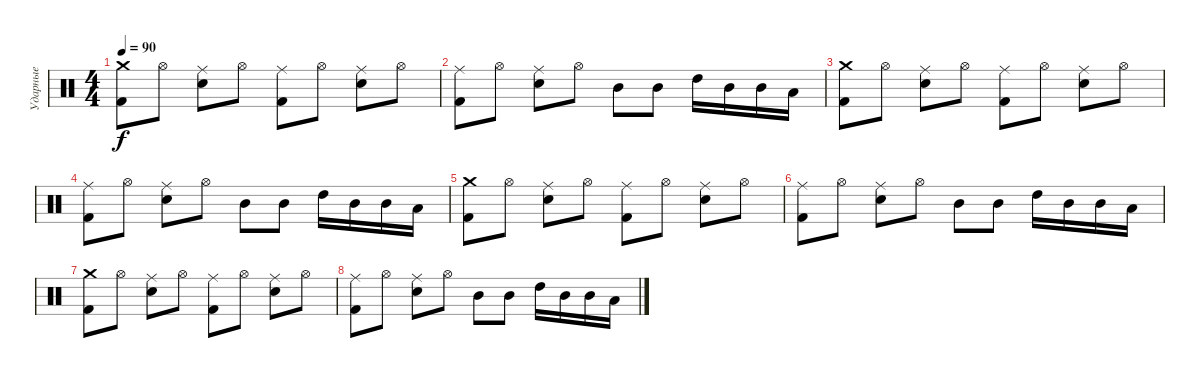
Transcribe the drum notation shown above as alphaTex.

\track ("Ударные" "Ударные") {instrument percussion}
\staff {score}
\articulation defaults
\ts (4 4)
\tempo 90
\clef neutral
\ks c
("Kick (hit) 2" "Crash medium (hit)").8{dy f} "Hi-Hat (open)".8 ("Electric Snare (hit)" "Ride (middle)").8 "Hi-Hat (open)".8 ("Kick (hit) 2" "Ride (middle)").8 "Hi-Hat (open)".8 ("Electric Snare (hit)" "Ride (middle)").8 "Hi-Hat (open)".8 |
("Kick (hit) 2" "Ride (middle)").8 "Hi-Hat (open)".8 ("Electric Snare (hit)" "Ride (middle)").8 "Hi-Hat (open)".8 "Mid Tom (hit)".8 "Mid Tom (hit)".8 "High Tom (hit)".16 "Mid Tom (hit)".16 "Mid Tom (hit)".16 "Low Tom (hit)".16 |
("Kick (hit) 2" "Crash medium (hit)").8 "Hi-Hat (open)".8 ("Electric Snare (hit)" "Ride (middle)").8 "Hi-Hat (open)".8 ("Kick (hit) 2" "Ride (middle)").8 "Hi-Hat (open)".8 ("Electric Snare (hit)" "Ride (middle)").8 "Hi-Hat (open)".8 |
("Kick (hit) 2" "Ride (middle)").8 "Hi-Hat (open)".8 ("Electric Snare (hit)" "Ride (middle)").8 "Hi-Hat (open)".8 "Mid Tom (hit)".8 "Mid Tom (hit)".8 "High Tom (hit)".16 "Mid Tom (hit)".16 "Mid Tom (hit)".16 "Low Tom (hit)".16 |
("Kick (hit) 2" "Crash medium (hit)").8 "Hi-Hat (open)".8 ("Electric Snare (hit)" "Ride (middle)").8 "Hi-Hat (open)".8 ("Kick (hit) 2" "Ride (middle)").8 "Hi-Hat (open)".8 ("Electric Snare (hit)" "Ride (middle)").8 "Hi-Hat (open)".8 |
("Kick (hit) 2" "Ride (middle)").8 "Hi-Hat (open)".8 ("Electric Snare (hit)" "Ride (middle)").8 "Hi-Hat (open)".8 "Mid Tom (hit)".8 "Mid Tom (hit)".8 "High Tom (hit)".16 "Mid Tom (hit)".16 "Mid Tom (hit)".16 "Low Tom (hit)".16 |
("Kick (hit) 2" "Crash medium (hit)").8 "Hi-Hat (open)".8 ("Electric Snare (hit)" "Ride (middle)").8 "Hi-Hat (open)".8 ("Kick (hit) 2" "Ride (middle)").8 "Hi-Hat (open)".8 ("Electric Snare (hit)" "Ride (middle)").8 "Hi-Hat (open)".8 |
("Kick (hit) 2" "Ride (middle)").8 "Hi-Hat (open)".8 ("Electric Snare (hit)" "Ride (middle)").8 "Hi-Hat (open)".8 "Mid Tom (hit)".8 "Mid Tom (hit)".8 "High Tom (hit)".16 "Mid Tom (hit)".16 "Mid Tom (hit)".16 "Low Tom (hit)".16
